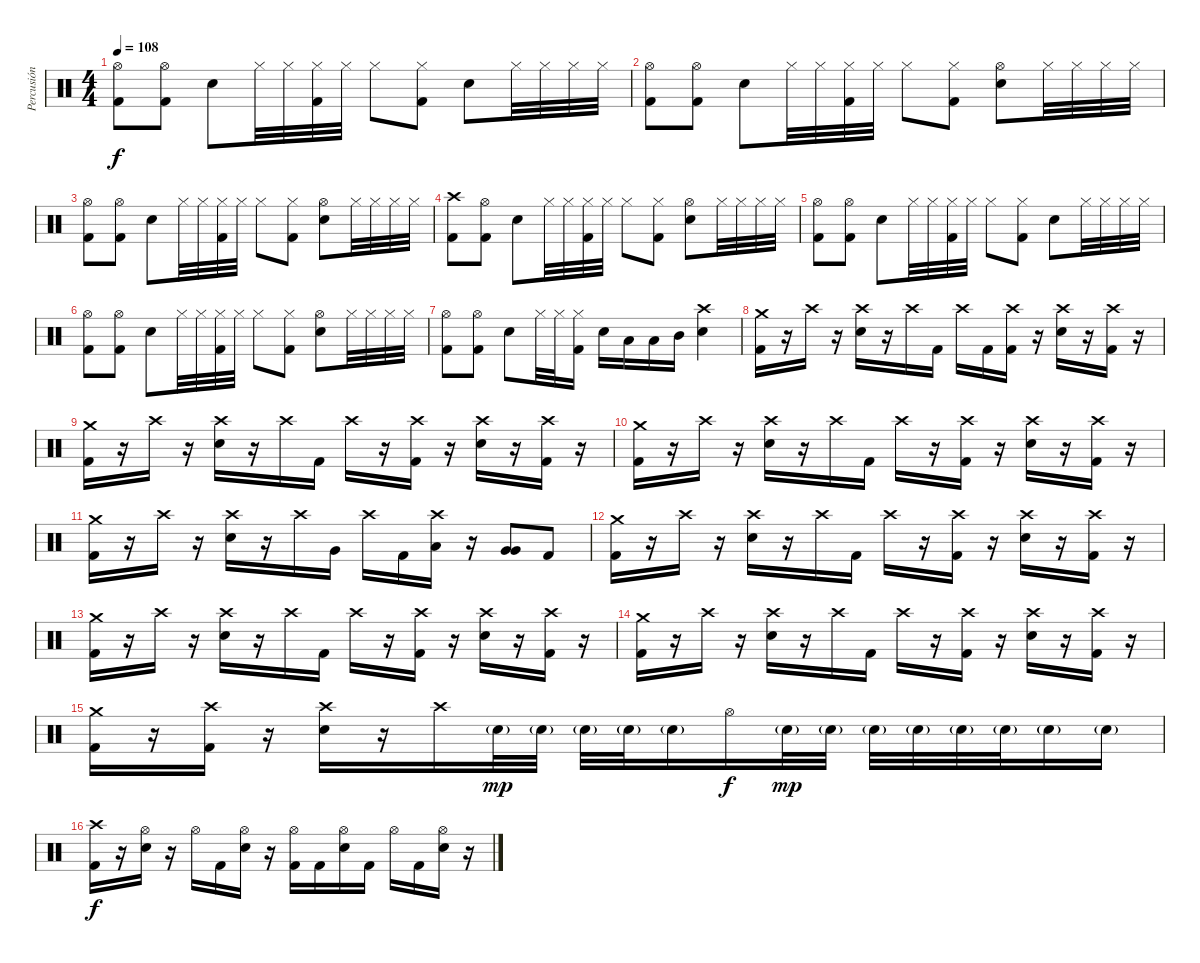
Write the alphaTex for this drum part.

\track ("Percusión" "Percusión") {instrument percussion}
\staff {score}
\articulation defaults
\ts (4 4)
\tempo 108
\clef neutral
\ks c
("Hi-Hat (open)" "Kick (hit) 2").8{dy f} ("Hi-Hat (open)" "Kick (hit) 2").8 "Electric Snare (hit)".8 "Hi-Hat (closed)".32 "Hi-Hat (closed)".32 ("Hi-Hat (closed)" "Kick (hit) 2").32 "Hi-Hat (closed)".32 "Hi-Hat (closed)".8 ("Hi-Hat (closed)" "Kick (hit) 2").8 "Electric Snare (hit)".8 "Hi-Hat (closed)".32 "Hi-Hat (closed)".32 "Hi-Hat (closed)".32 "Hi-Hat (closed)".32 |
("Hi-Hat (open)" "Kick (hit) 2").8 ("Hi-Hat (open)" "Kick (hit) 2").8 "Electric Snare (hit)".8 "Hi-Hat (closed)".32 "Hi-Hat (closed)".32 ("Hi-Hat (closed)" "Kick (hit) 2").32 "Hi-Hat (closed)".32 "Hi-Hat (closed)".8 ("Hi-Hat (closed)" "Kick (hit) 2").8 ("Hi-Hat (open)" "Electric Snare (hit)").8 "Hi-Hat (closed)".32 "Hi-Hat (closed)".32 "Hi-Hat (closed)".32 "Hi-Hat (closed)".32 |
("Hi-Hat (open)" "Kick (hit) 2").8 ("Hi-Hat (open)" "Kick (hit) 2").8 "Electric Snare (hit)".8 "Hi-Hat (closed)".32 "Hi-Hat (closed)".32 ("Hi-Hat (closed)" "Kick (hit) 2").32 "Hi-Hat (closed)".32 "Hi-Hat (closed)".8 ("Hi-Hat (closed)" "Kick (hit) 2").8 ("Hi-Hat (open)" "Electric Snare (hit)").8 "Hi-Hat (closed)".32 "Hi-Hat (closed)".32 "Hi-Hat (closed)".32 "Hi-Hat (closed)".32 |
("Crash high (hit)" "Kick (hit) 2").8 ("Hi-Hat (open)" "Kick (hit) 2").8 "Electric Snare (hit)".8 "Hi-Hat (closed)".32 "Hi-Hat (closed)".32 ("Hi-Hat (closed)" "Kick (hit) 2").32 "Hi-Hat (closed)".32 "Hi-Hat (closed)".8 ("Hi-Hat (closed)" "Kick (hit) 2").8 ("Hi-Hat (open)" "Electric Snare (hit)").8 "Hi-Hat (closed)".32 "Hi-Hat (closed)".32 "Hi-Hat (closed)".32 "Hi-Hat (closed)".32 |
("Hi-Hat (open)" "Kick (hit) 2").8 ("Hi-Hat (open)" "Kick (hit) 2").8 "Electric Snare (hit)".8 "Hi-Hat (closed)".32 "Hi-Hat (closed)".32 ("Hi-Hat (closed)" "Kick (hit) 2").32 "Hi-Hat (closed)".32 "Hi-Hat (closed)".8 ("Hi-Hat (closed)" "Kick (hit) 2").8 "Electric Snare (hit)".8 "Hi-Hat (closed)".32 "Hi-Hat (closed)".32 "Hi-Hat (closed)".32 "Hi-Hat (closed)".32 |
("Hi-Hat (open)" "Kick (hit) 2").8 ("Hi-Hat (open)" "Kick (hit) 2").8 "Electric Snare (hit)".8 "Hi-Hat (closed)".32 "Hi-Hat (closed)".32 ("Hi-Hat (closed)" "Kick (hit) 2").32 "Hi-Hat (closed)".32 "Hi-Hat (closed)".8 ("Hi-Hat (closed)" "Kick (hit) 2").8 ("Hi-Hat (open)" "Electric Snare (hit)").8 "Hi-Hat (closed)".32 "Hi-Hat (closed)".32 "Hi-Hat (closed)".32 "Hi-Hat (closed)".32 |
("Hi-Hat (open)" "Kick (hit) 2").8 ("Hi-Hat (open)" "Kick (hit) 2").8 "Electric Snare (hit)".8 "Hi-Hat (closed)".32 "Hi-Hat (closed)".32 ("Hi-Hat (closed)" "Kick (hit) 2").16 "Electric Snare (hit)".16 "Low Tom (hit)".16 "Low Tom (hit)".16 "Mid Tom (hit)".16 ("Crash high (hit)" "Electric Snare (hit)").4 |
("Crash medium (hit)" "Kick (hit) 2").16 r.16 "Crash high (hit)".16 r.16 ("Crash high (hit)" "Electric Snare (hit)").16 r.16 "Crash high (hit)".16 "Kick (hit) 2".16 "Crash high (hit)".16 "Kick (hit) 2".16 ("Crash high (hit)" "Kick (hit) 2").16 r.16 ("Crash high (hit)" "Electric Snare (hit)").16 r.16 ("Crash high (hit)" "Kick (hit) 2").16 r.16 |
("Crash medium (hit)" "Kick (hit) 2").16 r.16 "Crash high (hit)".16 r.16 ("Crash high (hit)" "Electric Snare (hit)").16 r.16 "Crash high (hit)".16 "Kick (hit) 2".16 "Crash high (hit)".16 r.16 ("Crash high (hit)" "Kick (hit) 2").16 r.16 ("Crash high (hit)" "Electric Snare (hit)").16 r.16 ("Crash high (hit)" "Kick (hit) 2").16 r.16 |
("Crash medium (hit)" "Kick (hit) 2").16 r.16 "Crash high (hit)".16 r.16 ("Crash high (hit)" "Electric Snare (hit)").16 r.16 "Crash high (hit)".16 "Kick (hit) 2".16 "Crash high (hit)".16 r.16 ("Crash high (hit)" "Kick (hit) 2").16 r.16 ("Crash high (hit)" "Electric Snare (hit)").16 r.16 ("Crash high (hit)" "Kick (hit) 2").16 r.16 |
("Crash medium (hit)" "Kick (hit) 2").16 r.16 "Crash high (hit)".16 r.16 ("Crash high (hit)" "Electric Snare (hit)").16 r.16 "Crash high (hit)".16 "Very Low Tom (hit)".16 "Crash high (hit)".16 "Kick (hit) 2".16 ("Crash high (hit)" "Low Tom (hit)").16 r.16 ("Very Low Tom (hit)" "Very Low Tom (hit)").8 "Kick (hit) 2".8 |
("Crash medium (hit)" "Kick (hit) 2").16 r.16 "Crash high (hit)".16 r.16 ("Crash high (hit)" "Electric Snare (hit)").16 r.16 "Crash high (hit)".16 "Kick (hit) 2".16 "Crash high (hit)".16 r.16 ("Crash high (hit)" "Kick (hit) 2").16 r.16 ("Crash high (hit)" "Electric Snare (hit)").16 r.16 ("Crash high (hit)" "Kick (hit) 2").16 r.16 |
("Crash medium (hit)" "Kick (hit) 2").16 r.16 "Crash high (hit)".16 r.16 ("Crash high (hit)" "Electric Snare (hit)").16 r.16 "Crash high (hit)".16 "Kick (hit) 2".16 "Crash high (hit)".16 r.16 ("Crash high (hit)" "Kick (hit) 2").16 r.16 ("Crash high (hit)" "Electric Snare (hit)").16 r.16 ("Crash high (hit)" "Kick (hit) 2").16 r.16 |
("Crash medium (hit)" "Kick (hit) 2").16 r.16 "Crash high (hit)".16 r.16 ("Crash high (hit)" "Electric Snare (hit)").16 r.16 "Crash high (hit)".16 "Kick (hit) 2".16 "Crash high (hit)".16 r.16 ("Crash high (hit)" "Kick (hit) 2").16 r.16 ("Crash high (hit)" "Electric Snare (hit)").16 r.16 ("Crash high (hit)" "Kick (hit) 2").16 r.16 |
("Crash medium (hit)" "Kick (hit) 2").16 r.16 ("Crash high (hit)" "Kick (hit) 2").16 r.16 ("Crash high (hit)" "Electric Snare (hit)").16 r.16 "Crash high (hit)".16 "Electric Snare (hit)"{g}.32{dy mp} "Electric Snare (hit)"{g}.32 "Electric Snare (hit)"{g}.32 "Electric Snare (hit)"{g}.32 "Electric Snare (hit)"{g}.16 "Hi-Hat (open)".16{dy f} "Electric Snare (hit)"{g}.32{dy mp} "Electric Snare (hit)"{g}.32 "Electric Snare (hit)"{g}.32 "Electric Snare (hit)"{g}.32 "Electric Snare (hit)"{g}.32 "Electric Snare (hit)"{g}.32 "Electric Snare (hit)"{g}.16 "Electric Snare (hit)"{g}.16 |
("Crash high (hit)" "Kick (hit) 2").16{dy f} r.16 ("Hi-Hat (open)" "Electric Snare (hit)").16 r.16 "Hi-Hat (open)".16 "Kick (hit) 2".16 ("Hi-Hat (open)" "Electric Snare (hit)").16 r.16 ("Hi-Hat (open)" "Kick (hit) 2").16 "Kick (hit) 2".16 ("Hi-Hat (open)" "Electric Snare (hit)").16 "Kick (hit) 2".16 "Hi-Hat (open)".16 "Kick (hit) 2".16 ("Hi-Hat (open)" "Electric Snare (hit)").16 r.16
